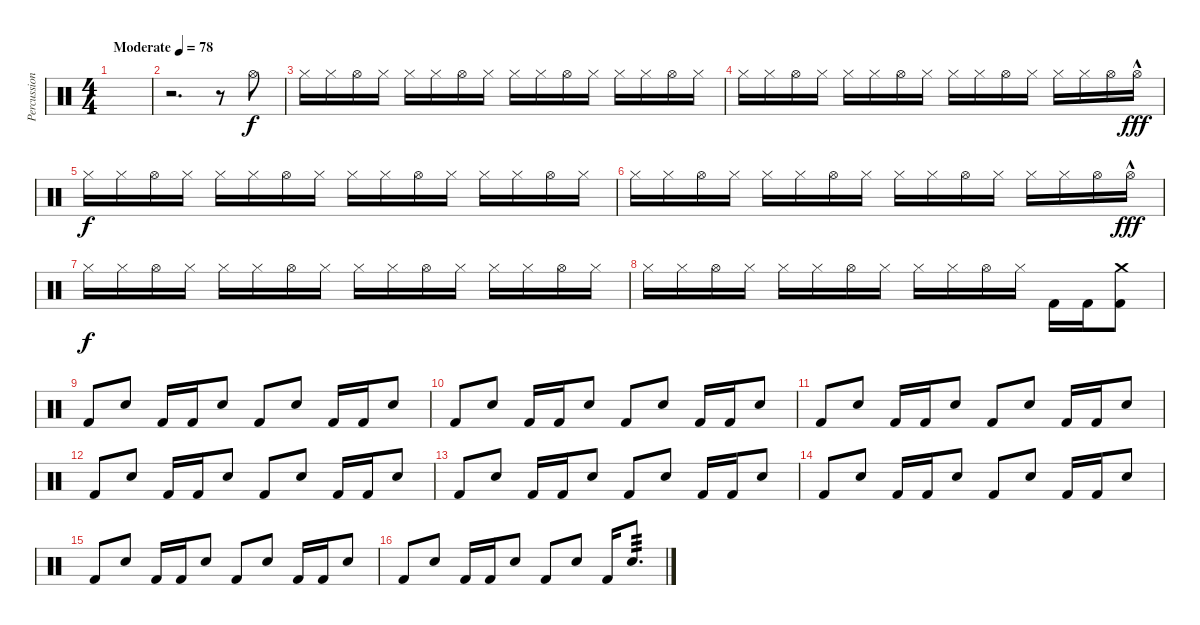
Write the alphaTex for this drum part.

\track ("Percussioni" "Percussion") {instrument percussion}
\staff {score}
\articulation defaults
\ts (4 4)
\tempo (78 "Moderate")
\clef neutral
\ks c
|
r.2{d} r.8 "Hi-Hat (open)".8 |
"Hi-Hat (closed)".16 "Hi-Hat (closed)".16 "Hi-Hat (open)".16 "Hi-Hat (closed)".16 "Hi-Hat (closed)".16 "Hi-Hat (closed)".16 "Hi-Hat (open)".16 "Hi-Hat (closed)".16 "Hi-Hat (closed)".16 "Hi-Hat (closed)".16 "Hi-Hat (open)".16 "Hi-Hat (closed)".16 "Hi-Hat (closed)".16 "Hi-Hat (closed)".16 "Hi-Hat (open)".16 "Hi-Hat (closed)".16 |
"Hi-Hat (closed)".16 "Hi-Hat (closed)".16 "Hi-Hat (open)".16 "Hi-Hat (closed)".16 "Hi-Hat (closed)".16 "Hi-Hat (closed)".16 "Hi-Hat (open)".16 "Hi-Hat (closed)".16 "Hi-Hat (closed)".16 "Hi-Hat (closed)".16 "Hi-Hat (open)".16 "Hi-Hat (closed)".16 "Hi-Hat (closed)".16 "Hi-Hat (closed)".16 "Hi-Hat (open)".16 "Hi-Hat (open)"{hac}.16{dy fff} |
"Hi-Hat (closed)".16{dy f} "Hi-Hat (closed)".16 "Hi-Hat (open)".16 "Hi-Hat (closed)".16 "Hi-Hat (closed)".16 "Hi-Hat (closed)".16 "Hi-Hat (open)".16 "Hi-Hat (closed)".16 "Hi-Hat (closed)".16 "Hi-Hat (closed)".16 "Hi-Hat (open)".16 "Hi-Hat (closed)".16 "Hi-Hat (closed)".16 "Hi-Hat (closed)".16 "Hi-Hat (open)".16 "Hi-Hat (closed)".16 |
"Hi-Hat (closed)".16 "Hi-Hat (closed)".16 "Hi-Hat (open)".16 "Hi-Hat (closed)".16 "Hi-Hat (closed)".16 "Hi-Hat (closed)".16 "Hi-Hat (open)".16 "Hi-Hat (closed)".16 "Hi-Hat (closed)".16 "Hi-Hat (closed)".16 "Hi-Hat (open)".16 "Hi-Hat (closed)".16 "Hi-Hat (closed)".16 "Hi-Hat (closed)".16 "Hi-Hat (open)".16 "Hi-Hat (open)"{hac}.16{dy fff} |
"Hi-Hat (closed)".16{dy f} "Hi-Hat (closed)".16 "Hi-Hat (open)".16 "Hi-Hat (closed)".16 "Hi-Hat (closed)".16 "Hi-Hat (closed)".16 "Hi-Hat (open)".16 "Hi-Hat (closed)".16 "Hi-Hat (closed)".16 "Hi-Hat (closed)".16 "Hi-Hat (open)".16 "Hi-Hat (closed)".16 "Hi-Hat (closed)".16 "Hi-Hat (closed)".16 "Hi-Hat (open)".16 "Hi-Hat (closed)".16 |
"Hi-Hat (closed)".16 "Hi-Hat (closed)".16 "Hi-Hat (open)".16 "Hi-Hat (closed)".16 "Hi-Hat (closed)".16 "Hi-Hat (closed)".16 "Hi-Hat (open)".16 "Hi-Hat (closed)".16 "Hi-Hat (closed)".16 "Hi-Hat (closed)".16 "Hi-Hat (open)".16 "Hi-Hat (closed)".16 "Kick (hit) 2".16 "Kick (hit) 2".16 ("Crash medium (hit)" "Kick (hit) 2").8 |
"Kick (hit) 2".8 "Snare (hit) 2".8 "Kick (hit) 2".16 "Kick (hit) 2".16 "Snare (hit) 2".8 "Kick (hit) 2".8 "Snare (hit) 2".8 "Kick (hit) 2".16 "Kick (hit) 2".16 "Snare (hit) 2".8 |
"Kick (hit) 2".8 "Snare (hit) 2".8 "Kick (hit) 2".16 "Kick (hit) 2".16 "Snare (hit) 2".8 "Kick (hit) 2".8 "Snare (hit) 2".8 "Kick (hit) 2".16 "Kick (hit) 2".16 "Snare (hit) 2".8 |
"Kick (hit) 2".8 "Snare (hit) 2".8 "Kick (hit) 2".16 "Kick (hit) 2".16 "Snare (hit) 2".8 "Kick (hit) 2".8 "Snare (hit) 2".8 "Kick (hit) 2".16 "Kick (hit) 2".16 "Snare (hit) 2".8 |
"Kick (hit) 2".8 "Snare (hit) 2".8 "Kick (hit) 2".16 "Kick (hit) 2".16 "Snare (hit) 2".8 "Kick (hit) 2".8 "Snare (hit) 2".8 "Kick (hit) 2".16 "Kick (hit) 2".16 "Snare (hit) 2".8 |
"Kick (hit) 2".8 "Snare (hit) 2".8 "Kick (hit) 2".16 "Kick (hit) 2".16 "Snare (hit) 2".8 "Kick (hit) 2".8 "Snare (hit) 2".8 "Kick (hit) 2".16 "Kick (hit) 2".16 "Snare (hit) 2".8 |
"Kick (hit) 2".8 "Snare (hit) 2".8 "Kick (hit) 2".16 "Kick (hit) 2".16 "Snare (hit) 2".8 "Kick (hit) 2".8 "Snare (hit) 2".8 "Kick (hit) 2".16 "Kick (hit) 2".16 "Snare (hit) 2".8 |
"Kick (hit) 2".8 "Snare (hit) 2".8 "Kick (hit) 2".16 "Kick (hit) 2".16 "Snare (hit) 2".8 "Kick (hit) 2".8 "Snare (hit) 2".8 "Kick (hit) 2".16 "Kick (hit) 2".16 "Snare (hit) 2".8 |
"Kick (hit) 2".8 "Snare (hit) 2".8 "Kick (hit) 2".16 "Kick (hit) 2".16 "Snare (hit) 2".8 "Kick (hit) 2".8 "Snare (hit) 2".8 "Kick (hit) 2".16 "Snare (hit) 2".8{d tp 3}
